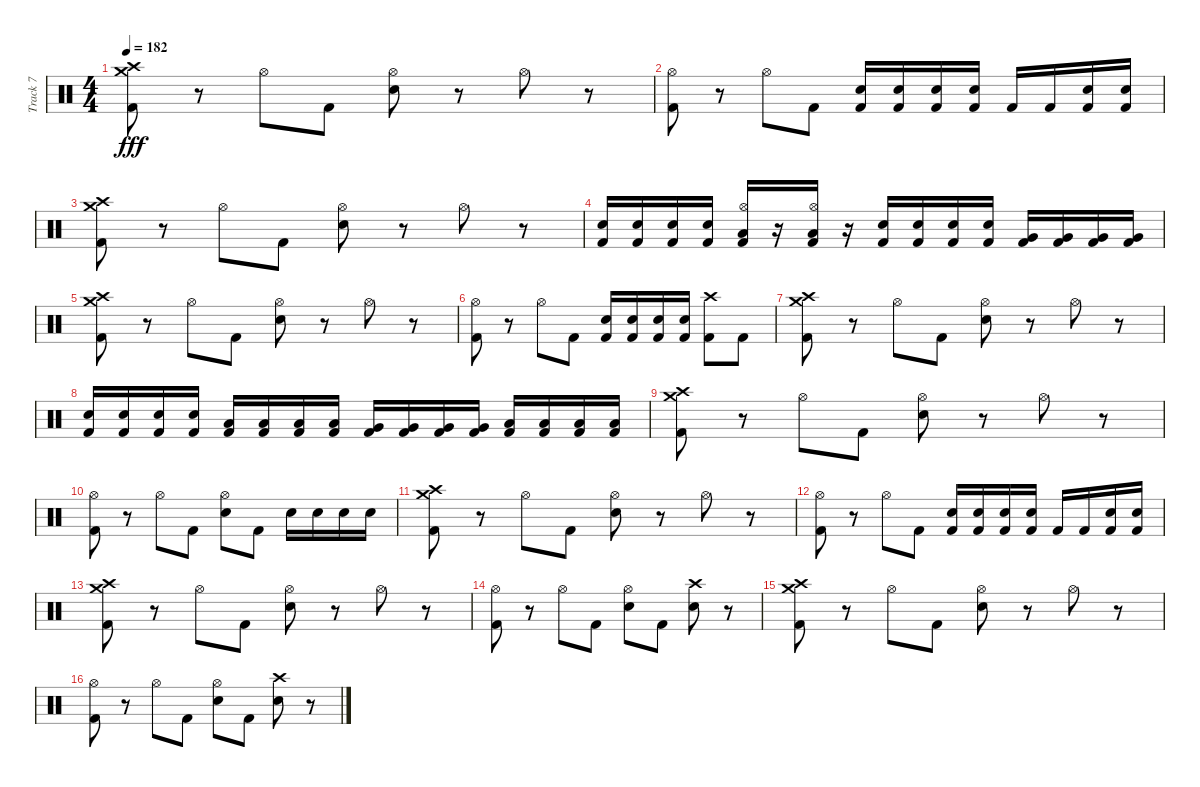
\track ("Track 7" "Track 7") {instrument percussion}
\staff {score}
\articulation defaults
\ts (4 4)
\tempo 182
\clef neutral
\ks c
("Kick (hit) 2" "Crash medium (hit)" "Crash high (hit)").8{dy fff} r.8 "Hi-Hat (open)".8 "Kick (hit) 2".8 ("Electric Snare (hit)" "Hi-Hat (open)").8 r.8 "Hi-Hat (open)".8 r.8 |
("Kick (hit) 2" "Hi-Hat (open)").8 r.8 "Hi-Hat (open)".8 "Kick (hit) 2".8 ("Kick (hit) 2" "Electric Snare (hit)").16 ("Kick (hit) 2" "Electric Snare (hit)").16 ("Kick (hit) 2" "Electric Snare (hit)").16 ("Kick (hit) 2" "Electric Snare (hit)").16 "Kick (hit) 2".16 "Kick (hit) 2".16 ("Kick (hit) 2" "Electric Snare (hit)").16 ("Kick (hit) 2" "Electric Snare (hit)").16 |
("Kick (hit) 2" "Crash medium (hit)" "Crash high (hit)").8 r.8 "Hi-Hat (open)".8 "Kick (hit) 2".8 ("Electric Snare (hit)" "Hi-Hat (open)").8 r.8 "Hi-Hat (open)".8 r.8 |
("Kick (hit) 2" "Electric Snare (hit)").16 ("Kick (hit) 2" "Electric Snare (hit)").16 ("Kick (hit) 2" "Electric Snare (hit)").16 ("Kick (hit) 2" "Electric Snare (hit)").16 ("Kick (hit) 2" "Low Tom (hit)" "Hi-Hat (open)").16 r.16 ("Kick (hit) 2" "Low Tom (hit)" "Hi-Hat (open)").16 r.16 ("Kick (hit) 2" "Electric Snare (hit)").16 ("Kick (hit) 2" "Electric Snare (hit)").16 ("Kick (hit) 2" "Electric Snare (hit)").16 ("Kick (hit) 2" "Electric Snare (hit)").16 ("Kick (hit) 2" "Very Low Tom (hit)").16 ("Kick (hit) 2" "Very Low Tom (hit)").16 ("Kick (hit) 2" "Very Low Tom (hit)").16 ("Kick (hit) 2" "Very Low Tom (hit)").16 |
("Kick (hit) 2" "Crash medium (hit)" "Crash high (hit)").8 r.8 "Hi-Hat (open)".8 "Kick (hit) 2".8 ("Electric Snare (hit)" "Hi-Hat (open)").8 r.8 "Hi-Hat (open)".8 r.8 |
("Kick (hit) 2" "Hi-Hat (open)").8 r.8 "Hi-Hat (open)".8 "Kick (hit) 2".8 ("Kick (hit) 2" "Electric Snare (hit)").16 ("Kick (hit) 2" "Electric Snare (hit)").16 ("Kick (hit) 2" "Electric Snare (hit)").16 ("Kick (hit) 2" "Electric Snare (hit)").16 ("Kick (hit) 2" "Crash high (hit)").8 "Kick (hit) 2".8 |
("Kick (hit) 2" "Crash medium (hit)" "Crash high (hit)").8 r.8 "Hi-Hat (open)".8 "Kick (hit) 2".8 ("Electric Snare (hit)" "Hi-Hat (open)").8 r.8 "Hi-Hat (open)".8 r.8 |
("Kick (hit) 2" "Electric Snare (hit)").16 ("Kick (hit) 2" "Electric Snare (hit)").16 ("Kick (hit) 2" "Electric Snare (hit)").16 ("Kick (hit) 2" "Electric Snare (hit)").16 ("Kick (hit) 2" "Low Tom (hit)").16 ("Kick (hit) 2" "Low Tom (hit)").16 ("Kick (hit) 2" "Low Tom (hit)").16 ("Kick (hit) 2" "Low Tom (hit)").16 ("Kick (hit) 2" "Very Low Tom (hit)").16 ("Kick (hit) 2" "Very Low Tom (hit)").16 ("Kick (hit) 2" "Very Low Tom (hit)").16 ("Kick (hit) 2" "Very Low Tom (hit)").16 ("Kick (hit) 2" "Low Floor Tom (hit)").16 ("Kick (hit) 2" "Low Floor Tom (hit)").16 ("Kick (hit) 2" "Low Floor Tom (hit)").16 ("Kick (hit) 2" "Low Floor Tom (hit)").16 |
("Kick (hit) 2" "Crash medium (hit)" "Crash high (hit)").8 r.8 "Hi-Hat (open)".8 "Kick (hit) 2".8 ("Electric Snare (hit)" "Hi-Hat (open)").8 r.8 "Hi-Hat (open)".8 r.8 |
("Kick (hit) 2" "Hi-Hat (open)").8 r.8 "Hi-Hat (open)".8 "Kick (hit) 2".8 ("Electric Snare (hit)" "Hi-Hat (open)").8 "Kick (hit) 2".8 "Electric Snare (hit)".16 "Electric Snare (hit)".16 "Electric Snare (hit)".16 "Electric Snare (hit)".16 |
("Kick (hit) 2" "Crash medium (hit)" "Crash high (hit)").8 r.8 "Hi-Hat (open)".8 "Kick (hit) 2".8 ("Electric Snare (hit)" "Hi-Hat (open)").8 r.8 "Hi-Hat (open)".8 r.8 |
("Kick (hit) 2" "Hi-Hat (open)").8 r.8 "Hi-Hat (open)".8 "Kick (hit) 2".8 ("Kick (hit) 2" "Electric Snare (hit)").16 ("Kick (hit) 2" "Electric Snare (hit)").16 ("Kick (hit) 2" "Electric Snare (hit)").16 ("Kick (hit) 2" "Electric Snare (hit)").16 "Kick (hit) 2".16 "Kick (hit) 2".16 ("Kick (hit) 2" "Electric Snare (hit)").16 ("Kick (hit) 2" "Electric Snare (hit)").16 |
("Kick (hit) 2" "Crash medium (hit)" "Crash high (hit)").8 r.8 "Hi-Hat (open)".8 "Kick (hit) 2".8 ("Electric Snare (hit)" "Hi-Hat (open)").8 r.8 "Hi-Hat (open)".8 r.8 |
("Kick (hit) 2" "Hi-Hat (open)").8 r.8 "Hi-Hat (open)".8 "Kick (hit) 2".8 ("Electric Snare (hit)" "Hi-Hat (open)").8 "Kick (hit) 2".8 ("Electric Snare (hit)" "Crash high (hit)").8 r.8 |
("Kick (hit) 2" "Crash medium (hit)" "Crash high (hit)").8 r.8 "Hi-Hat (open)".8 "Kick (hit) 2".8 ("Electric Snare (hit)" "Hi-Hat (open)").8 r.8 "Hi-Hat (open)".8 r.8 |
("Kick (hit) 2" "Hi-Hat (open)").8 r.8 "Hi-Hat (open)".8 "Kick (hit) 2".8 ("Electric Snare (hit)" "Hi-Hat (open)").8 "Kick (hit) 2".8 ("Electric Snare (hit)" "Crash high (hit)").8 r.8
